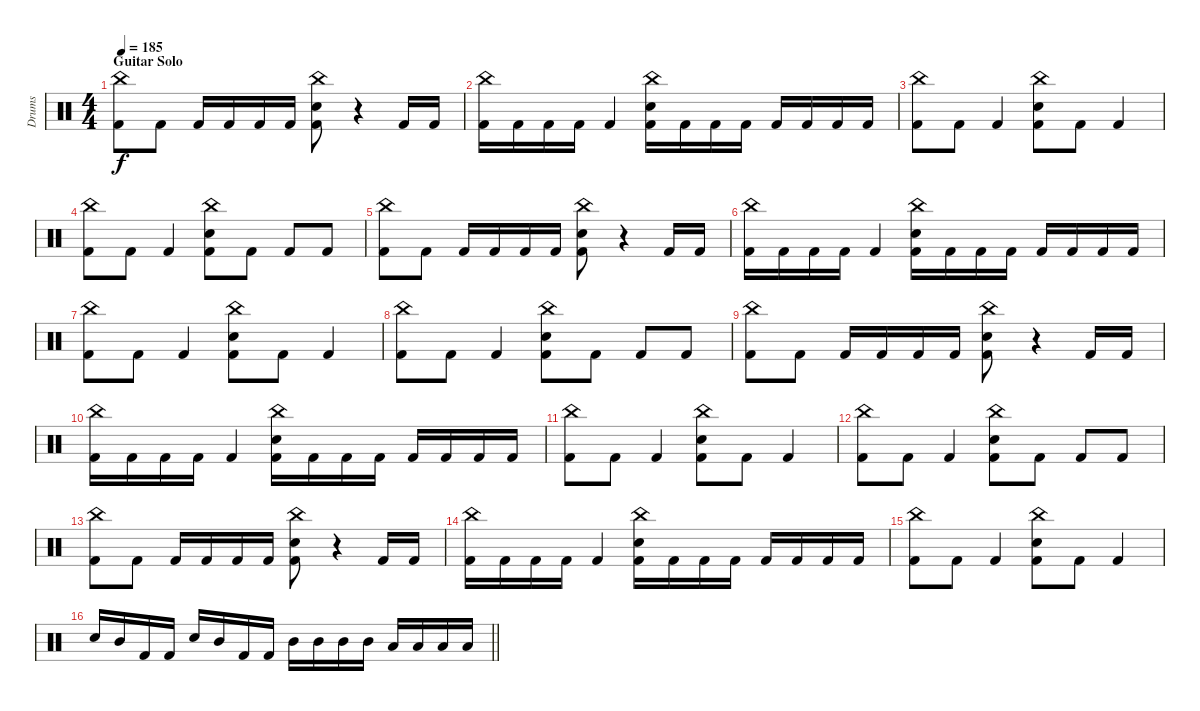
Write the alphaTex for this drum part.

\track ("Drums" "Drums") {instrument percussion}
\staff {score}
\articulation defaults
\ts (4 4)
\section ("" "Guitar Solo")
\tempo 185
\clef neutral
\ks c
("China (hit)" "Kick (hit) 2").8{dy f} "Kick (hit) 2".8 "Kick (hit) 2".16 "Kick (hit) 2".16 "Kick (hit) 2".16 "Kick (hit) 2".16 ("China (hit)" "Electric Snare (hit)" "Kick (hit) 2").8 r.4 "Kick (hit) 2".16 "Kick (hit) 2".16 |
("China (hit)" "Kick (hit) 2").16 "Kick (hit) 2".16 "Kick (hit) 2".16 "Kick (hit) 2".16 "Kick (hit) 2".4 ("China (hit)" "Electric Snare (hit)" "Kick (hit) 2").16 "Kick (hit) 2".16 "Kick (hit) 2".16 "Kick (hit) 2".16 "Kick (hit) 2".16 "Kick (hit) 2".16 "Kick (hit) 2".16 "Kick (hit) 2".16 |
("China (hit)" "Kick (hit) 2").8 "Kick (hit) 2".8 "Kick (hit) 2".4 ("China (hit)" "Electric Snare (hit)" "Kick (hit) 2").8 "Kick (hit) 2".8 "Kick (hit) 2".4 |
("China (hit)" "Kick (hit) 2").8 "Kick (hit) 2".8 "Kick (hit) 2".4 ("China (hit)" "Electric Snare (hit)" "Kick (hit) 2").8 "Kick (hit) 2".8 "Kick (hit) 2".8 "Kick (hit) 2".8 |
("China (hit)" "Kick (hit) 2").8 "Kick (hit) 2".8 "Kick (hit) 2".16 "Kick (hit) 2".16 "Kick (hit) 2".16 "Kick (hit) 2".16 ("China (hit)" "Electric Snare (hit)" "Kick (hit) 2").8 r.4 "Kick (hit) 2".16 "Kick (hit) 2".16 |
("China (hit)" "Kick (hit) 2").16 "Kick (hit) 2".16 "Kick (hit) 2".16 "Kick (hit) 2".16 "Kick (hit) 2".4 ("China (hit)" "Electric Snare (hit)" "Kick (hit) 2").16 "Kick (hit) 2".16 "Kick (hit) 2".16 "Kick (hit) 2".16 "Kick (hit) 2".16 "Kick (hit) 2".16 "Kick (hit) 2".16 "Kick (hit) 2".16 |
("China (hit)" "Kick (hit) 2").8 "Kick (hit) 2".8 "Kick (hit) 2".4 ("China (hit)" "Electric Snare (hit)" "Kick (hit) 2").8 "Kick (hit) 2".8 "Kick (hit) 2".4 |
("China (hit)" "Kick (hit) 2").8 "Kick (hit) 2".8 "Kick (hit) 2".4 ("China (hit)" "Electric Snare (hit)" "Kick (hit) 2").8 "Kick (hit) 2".8 "Kick (hit) 2".8 "Kick (hit) 2".8 |
("China (hit)" "Kick (hit) 2").8 "Kick (hit) 2".8 "Kick (hit) 2".16 "Kick (hit) 2".16 "Kick (hit) 2".16 "Kick (hit) 2".16 ("China (hit)" "Electric Snare (hit)" "Kick (hit) 2").8 r.4 "Kick (hit) 2".16 "Kick (hit) 2".16 |
("China (hit)" "Kick (hit) 2").16 "Kick (hit) 2".16 "Kick (hit) 2".16 "Kick (hit) 2".16 "Kick (hit) 2".4 ("China (hit)" "Electric Snare (hit)" "Kick (hit) 2").16 "Kick (hit) 2".16 "Kick (hit) 2".16 "Kick (hit) 2".16 "Kick (hit) 2".16 "Kick (hit) 2".16 "Kick (hit) 2".16 "Kick (hit) 2".16 |
("China (hit)" "Kick (hit) 2").8 "Kick (hit) 2".8 "Kick (hit) 2".4 ("China (hit)" "Electric Snare (hit)" "Kick (hit) 2").8 "Kick (hit) 2".8 "Kick (hit) 2".4 |
("China (hit)" "Kick (hit) 2").8 "Kick (hit) 2".8 "Kick (hit) 2".4 ("China (hit)" "Electric Snare (hit)" "Kick (hit) 2").8 "Kick (hit) 2".8 "Kick (hit) 2".8 "Kick (hit) 2".8 |
("China (hit)" "Kick (hit) 2").8 "Kick (hit) 2".8 "Kick (hit) 2".16 "Kick (hit) 2".16 "Kick (hit) 2".16 "Kick (hit) 2".16 ("China (hit)" "Electric Snare (hit)" "Kick (hit) 2").8 r.4 "Kick (hit) 2".16 "Kick (hit) 2".16 |
("China (hit)" "Kick (hit) 2").16 "Kick (hit) 2".16 "Kick (hit) 2".16 "Kick (hit) 2".16 "Kick (hit) 2".4 ("China (hit)" "Electric Snare (hit)" "Kick (hit) 2").16 "Kick (hit) 2".16 "Kick (hit) 2".16 "Kick (hit) 2".16 "Kick (hit) 2".16 "Kick (hit) 2".16 "Kick (hit) 2".16 "Kick (hit) 2".16 |
("China (hit)" "Kick (hit) 2").8 "Kick (hit) 2".8 "Kick (hit) 2".4 ("China (hit)" "Electric Snare (hit)" "Kick (hit) 2").8 "Kick (hit) 2".8 "Kick (hit) 2".4 |
\barLineRight lightlight "Electric Snare (hit)".16 "Mid Tom (hit)".16 "Kick (hit) 2".16 "Kick (hit) 2".16 "Electric Snare (hit)".16 "Mid Tom (hit)".16 "Kick (hit) 2".16 "Kick (hit) 2".16 "Mid Tom (hit)".16 "Mid Tom (hit)".16 "Mid Tom (hit)".16 "Mid Tom (hit)".16 "Low Tom (hit)".16 "Low Tom (hit)".16 "Low Tom (hit)".16 "Low Tom (hit)".16
